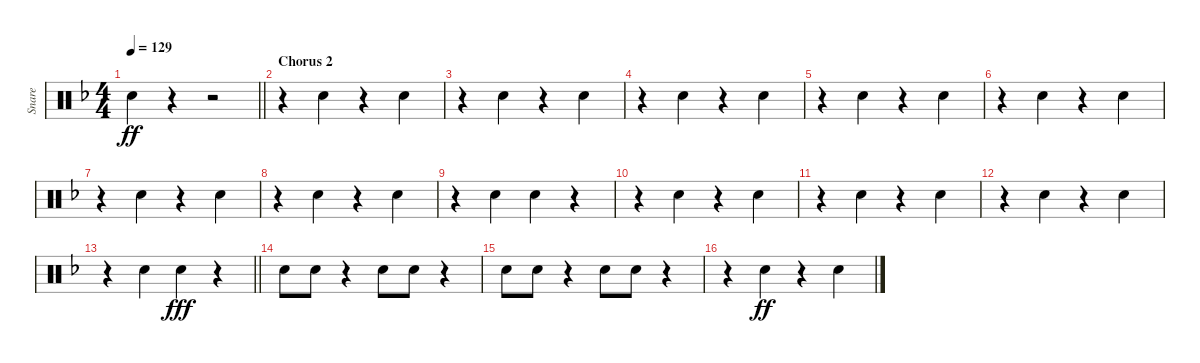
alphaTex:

\track ("Snare" "Snare") {instrument percussion}
\staff {score}
\articulation defaults
\ts (4 4)
\tempo 129
\clef neutral
\barLineRight lightlight
\ks dminor "Electric Snare (hit)".4{dy ff}
r.4 r.2 |
\section ("" "Chorus 2")
r.4 "Electric Snare (hit)".4 r.4 "Electric Snare (hit)".4 |
r.4 "Electric Snare (hit)".4 r.4 "Electric Snare (hit)".4 |
r.4 "Electric Snare (hit)".4 r.4 "Electric Snare (hit)".4 |
r.4 "Electric Snare (hit)".4 r.4 "Electric Snare (hit)".4 |
r.4 "Electric Snare (hit)".4 r.4 "Electric Snare (hit)".4 |
r.4 "Electric Snare (hit)".4 r.4 "Electric Snare (hit)".4 |
r.4 "Electric Snare (hit)".4 r.4 "Electric Snare (hit)".4 |
r.4 "Electric Snare (hit)".4 "Electric Snare (hit)".4 r.4 |
r.4 "Electric Snare (hit)".4 r.4 "Electric Snare (hit)".4 |
r.4 "Electric Snare (hit)".4 r.4 "Electric Snare (hit)".4 |
r.4 "Electric Snare (hit)".4 r.4 "Electric Snare (hit)".4 |
\barLineRight lightlight
r.4 "Electric Snare (hit)".4 "Electric Snare (hit)".4{dy fff} r.4 |
"Electric Snare (hit)".8 "Electric Snare (hit)".8 r.4 "Electric Snare (hit)".8 "Electric Snare (hit)".8 r.4 |
"Electric Snare (hit)".8 "Electric Snare (hit)".8 r.4 "Electric Snare (hit)".8 "Electric Snare (hit)".8 r.4 |
r.4 "Electric Snare (hit)".4{dy ff} r.4 "Electric Snare (hit)".4
